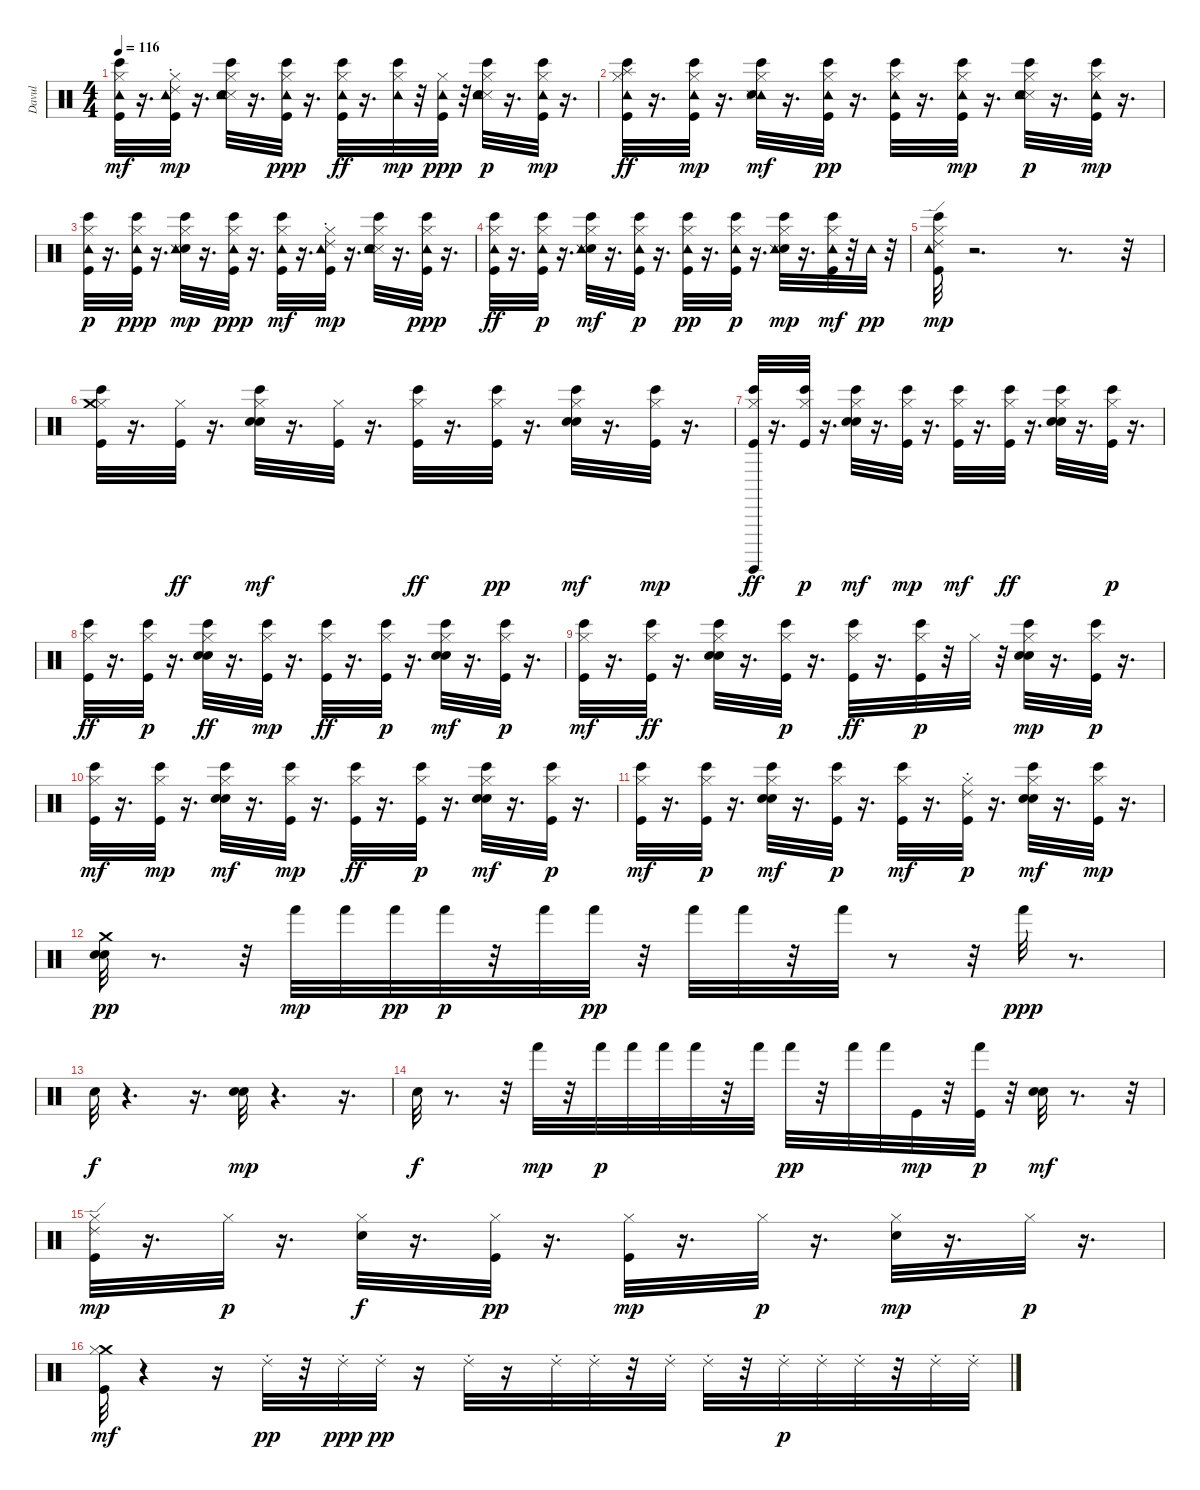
\track ("Davul" "Davul") {instrument percussion}
\staff {score}
\articulation defaults
\ts (4 4)
\tempo 116
\clef neutral
\ks c
("Tambourine (hit)" "Bongo High (hit)" "Kick (hit)" "Hi-Hat (closed)").32{dy mf} r.16{d} ("Kick (hit)" "Hi-Hat (closed)" "Tambourine (hit)" "Ride (choke) 2").32{dy mp} r.16{d} ("Snare (side stick) 3" "Bongo High (hit)" "Tambourine (hit)" "Snare (hit) 2" "Hi-Hat (closed)").32 r.16{d} ("Hi-Hat (closed)" "Bongo High (hit)" "Tambourine (hit)" "Kick (hit)").32{dy ppp} r.16{d} ("Tambourine (hit)" "Hi-Hat (closed)" "Bongo High (hit)" "Kick (hit)").32{dy ff} r.16{d} ("Tambourine (hit)" "Bongo High (hit)" "Hi-Hat (closed)").32{dy mp} r.32 ("Kick (hit)" "Hi-Hat (closed)" "Tambourine (hit)").32{dy ppp} r.32 ("Snare (side stick) 3" "Bongo High (hit)" "Hi-Hat (closed)" "Snare (hit) 2" "Tambourine (hit)").32{dy p} r.16{d} ("Bongo High (hit)" "Tambourine (hit)" "Kick (hit)" "Hi-Hat (closed)").32{dy mp} r.16{d} |
("Tambourine (hit)" "Splash (hit)" "Hi-Hat (closed)" "Kick (hit)" "Bongo High (hit)").32{dy ff} r.16{d} ("Hi-Hat (closed)" "Kick (hit)" "Tambourine (hit)" "Bongo High (hit)").32{dy mp} r.16{d} ("Tambourine (hit)" "Bongo High (hit)" "Hi-Hat (closed)" "Snare (hit) 2" "Snare (side stick) 3").32{dy mf} r.16{d} ("Kick (hit)" "Bongo High (hit)" "Hi-Hat (closed)" "Tambourine (hit)").32{dy pp} r.16{d} ("Kick (hit)" "Hi-Hat (closed)" "Bongo High (hit)" "Tambourine (hit)").32 r.16{d} ("Kick (hit)" "Hi-Hat (closed)" "Tambourine (hit)" "Bongo High (hit)").32{dy mp} r.16{d} ("Snare (side stick) 3" "Bongo High (hit)" "Snare (hit) 2" "Hi-Hat (closed)" "Tambourine (hit)").32{dy p} r.16{d} ("Tambourine (hit)" "Bongo High (hit)" "Kick (hit)" "Hi-Hat (closed)").32{dy mp} r.16{d} |
("Kick (hit)" "Hi-Hat (closed)" "Bongo High (hit)" "Tambourine (hit)").32{dy p} r.16{d} ("Kick (hit)" "Hi-Hat (closed)" "Bongo High (hit)" "Tambourine (hit)").32{dy ppp} r.16{d} ("Snare (hit) 2" "Snare (side stick) 3" "Hi-Hat (closed)" "Tambourine (hit)" "Bongo High (hit)").32{dy mp} r.16{d} ("Kick (hit)" "Hi-Hat (closed)" "Bongo High (hit)" "Tambourine (hit)").32{dy ppp} r.16{d} ("Bongo High (hit)" "Kick (hit)" "Tambourine (hit)" "Hi-Hat (closed)").32{dy mf} r.16{d} ("Tambourine (hit)" "Ride (choke) 2" "Kick (hit)" "Hi-Hat (closed)").32{dy mp} r.16{d} ("Hi-Hat (closed)" "Snare (side stick) 3" "Snare (hit) 2" "Bongo High (hit)" "Tambourine (hit)").32 r.16{d} ("Kick (hit)" "Hi-Hat (closed)" "Bongo High (hit)" "Tambourine (hit)").32{dy ppp} r.16{d} |
("Tambourine (hit)" "Bongo High (hit)" "Hi-Hat (closed)" "Kick (hit)").32{dy ff} r.16{d} ("Kick (hit)" "Hi-Hat (closed)" "Tambourine (hit)" "Bongo High (hit)").32{dy p} r.16{d} ("Snare (hit) 2" "Tambourine (hit)" "Snare (side stick) 3" "Bongo High (hit)" "Hi-Hat (closed)").32{dy mf} r.16{d} ("Hi-Hat (closed)" "Kick (hit)" "Tambourine (hit)" "Bongo High (hit)").32{dy p} r.16{d} ("Kick (hit)" "Hi-Hat (closed)" "Bongo High (hit)" "Tambourine (hit)").32{dy pp} r.16{d} ("Tambourine (hit)" "Kick (hit)" "Hi-Hat (closed)" "Bongo High (hit)").32{dy p} r.16{d} ("Snare (hit) 2" "Snare (side stick) 3" "Hi-Hat (closed)" "Bongo High (hit)" "Tambourine (hit)").32{dy mp} r.16{d} ("Tambourine (hit)" "Bongo High (hit)" "Hi-Hat (closed)" "Kick (hit)").32{dy mf} r.32 "Tambourine (hit)".32{dy pp} r.32 |
("Kick (hit)" "Bongo High (hit)" "Ride (edge) 2" "Tambourine (hit)" "Hi-Hat (closed)").32{dy mp} r.2{d} r.8{d} r.32 |
("Kick (hit)" "Hi-Hat (closed)" "Bongo High (hit)" "Crash medium (hit)").32 r.16{d} ("Hi-Hat (closed)" "Kick (hit)").32{dy ff} r.16{d} ("Snare (hit) 2" "Hi-Hat (closed)" "Electric Snare (hit)" "Bongo High (hit)").32{dy mf} r.16{d} ("Hi-Hat (closed)" "Kick (hit)").32 r.16{d} ("Bongo High (hit)" "Hi-Hat (closed)" "Kick (hit)").32{dy ff} r.16{d} ("Kick (hit)" "Hi-Hat (closed)" "Bongo High (hit)").32{dy pp} r.16{d} ("Bongo High (hit)" "Hi-Hat (closed)" "Electric Snare (hit)" "Snare (hit) 2").32{dy mf} r.16{d} ("Bongo High (hit)" "Hi-Hat (closed)" "Kick (hit)").32{dy mp} r.16{d} |
("Kick (hit)" "Surdo (hit)" "Hi-Hat (closed)" "Bongo High (hit)").32{dy ff} r.16{d} ("Hi-Hat (closed)" "Kick (hit)" "Bongo High (hit)").32{dy p} r.16{d} ("Electric Snare (hit)" "Bongo High (hit)" "Snare (hit) 2" "Hi-Hat (closed)").32{dy mf} r.16{d} ("Bongo High (hit)" "Hi-Hat (closed)" "Kick (hit)").32{dy mp} r.16{d} ("Kick (hit)" "Hi-Hat (closed)" "Bongo High (hit)").32{dy mf} r.16{d} ("Bongo High (hit)" "Hi-Hat (closed)" "Kick (hit)").32{dy ff} r.16{d} ("Electric Snare (hit)" "Snare (hit) 2" "Hi-Hat (closed)" "Bongo High (hit)").32 r.16{d} ("Kick (hit)" "Hi-Hat (closed)" "Bongo High (hit)").32{dy p} r.16{d} |
("Kick (hit)" "Hi-Hat (closed)" "Bongo High (hit)").32{dy ff} r.16{d} ("Kick (hit)" "Bongo High (hit)" "Hi-Hat (closed)").32{dy p} r.16{d} ("Electric Snare (hit)" "Snare (hit) 2" "Hi-Hat (closed)" "Bongo High (hit)").32{dy ff} r.16{d} ("Bongo High (hit)" "Hi-Hat (closed)" "Kick (hit)").32{dy mp} r.16{d} ("Kick (hit)" "Hi-Hat (closed)" "Bongo High (hit)").32{dy ff} r.16{d} ("Kick (hit)" "Hi-Hat (closed)" "Bongo High (hit)").32{dy p} r.16{d} ("Bongo High (hit)" "Electric Snare (hit)" "Snare (hit) 2" "Hi-Hat (closed)").32{dy mf} r.16{d} ("Hi-Hat (closed)" "Kick (hit)" "Bongo High (hit)").32{dy p} r.16{d} |
("Kick (hit)" "Hi-Hat (closed)" "Bongo High (hit)").32{dy mf} r.16{d} ("Bongo High (hit)" "Hi-Hat (closed)" "Kick (hit)").32{dy ff} r.16{d} ("Snare (hit) 2" "Electric Snare (hit)" "Hi-Hat (closed)" "Bongo High (hit)").32 r.16{d} ("Hi-Hat (closed)" "Kick (hit)" "Bongo High (hit)").32{dy p} r.16{d} ("Kick (hit)" "Hi-Hat (closed)" "Bongo High (hit)").32{dy ff} r.16{d} ("Kick (hit)" "Hi-Hat (closed)" "Bongo High (hit)").32{dy p} r.32 "Hi-Hat (closed)".32 r.32 ("Snare (hit) 2" "Electric Snare (hit)" "Bongo High (hit)" "Hi-Hat (closed)").32{dy mp} r.16{d} ("Kick (hit)" "Hi-Hat (closed)" "Bongo High (hit)").32{dy p} r.16{d} |
("Kick (hit)" "Hi-Hat (closed)" "Bongo High (hit)").32{dy mf} r.16{d} ("Bongo High (hit)" "Hi-Hat (closed)" "Kick (hit)").32{dy mp} r.16{d} ("Bongo High (hit)" "Snare (hit) 2" "Electric Snare (hit)" "Hi-Hat (closed)").32{dy mf} r.16{d} ("Kick (hit)" "Bongo High (hit)" "Hi-Hat (closed)").32{dy mp} r.16{d} ("Bongo High (hit)" "Hi-Hat (closed)" "Kick (hit)").32{dy ff} r.16{d} ("Kick (hit)" "Hi-Hat (closed)" "Bongo High (hit)").32{dy p} r.16{d} ("Electric Snare (hit)" "Snare (hit) 2" "Hi-Hat (closed)" "Bongo High (hit)").32{dy mf} r.16{d} ("Hi-Hat (closed)" "Kick (hit)" "Bongo High (hit)").32{dy p} r.16{d} |
("Kick (hit)" "Hi-Hat (closed)" "Bongo High (hit)").32{dy mf} r.16{d} ("Kick (hit)" "Hi-Hat (closed)" "Bongo High (hit)").32{dy p} r.16{d} ("Snare (hit) 2" "Bongo High (hit)" "Hi-Hat (closed)" "Electric Snare (hit)").32{dy mf} r.16{d} ("Kick (hit)" "Hi-Hat (closed)" "Bongo High (hit)").32{dy p} r.16{d} ("Bongo High (hit)" "Hi-Hat (closed)" "Kick (hit)").32{dy mf} r.16{d} ("Kick (hit)" "Hi-Hat (closed)" "Ride (choke) 2").32{dy p} r.16{d} ("Electric Snare (hit)" "Snare (hit) 2" "Hi-Hat (closed)" "Bongo High (hit)").32{dy mf} r.16{d} ("Bongo High (hit)" "Hi-Hat (closed)" "Kick (hit)").32{dy mp} r.16{d} |
("Electric Snare (hit)" "Snare (hit) 2" "Crash medium (hit)").32{dy pp} r.8{d} r.32 "Hand (hit)".32{dy mp} "Hand (hit)".32 "Hand (hit)".32{dy pp} "Hand (hit)".32{dy p} r.32 "Hand (hit)".32 "Hand (hit)".32{dy pp} r.32 "Hand (hit)".32 "Hand (hit)".32 r.32 "Hand (hit)".32 r.8 r.32 "Hand (hit)".32{dy ppp} r.8{d} |
"Electric Snare (hit)".32{dy f} r.4{d} r.16{d} ("Electric Snare (hit)" "Snare (hit) 2").32{dy mp} r.4{d} r.16{d} |
"Electric Snare (hit)".32{dy f} r.8{d} r.32 "Hand (hit)".32{dy mp} r.32 "Hand (hit)".32{dy p} "Hand (hit)".32 "Hand (hit)".32 "Hand (hit)".32 r.32 "Hand (hit)".32 "Hand (hit)".32{dy pp} r.32 "Hand (hit)".32 "Hand (hit)".32 "Kick (hit)".32{dy mp} r.32 ("Hand (hit)" "Kick (hit)").32{dy p} r.32 ("Electric Snare (hit)" "Snare (hit) 2").32{dy mf} r.8{d} r.32 |
("Kick (hit)" "Hi-Hat (closed)" "Ride (edge) 2").32{dy mp} r.16{d} "Hi-Hat (closed)".32{dy p} r.16{d} ("Hi-Hat (closed)" "Electric Snare (hit)").32{dy f} r.16{d} ("Kick (hit)" "Hi-Hat (closed)").32{dy pp} r.16{d} ("Kick (hit)" "Hi-Hat (closed)").32{dy mp} r.16{d} "Hi-Hat (closed)".32{dy p} r.16{d} ("Hi-Hat (closed)" "Electric Snare (hit)").32{dy mp} r.16{d} "Hi-Hat (closed)".32{dy p} r.16{d} |
("Crash medium (hit)" "Hi-Hat (closed)" "Kick (hit)").32{dy mf} r.4 r.16 "Ride (choke) 2".32{dy pp} r.32 "Ride (choke) 2".32{dy ppp} "Ride (choke) 2".32{dy pp} r.16 "Ride (choke) 2".32 r.16 "Ride (choke) 2".32 "Ride (choke) 2".32 r.32 "Ride (choke) 2".32 "Ride (choke) 2".32 r.32 "Ride (choke) 2".32{dy p} "Ride (choke) 2".32 "Ride (choke) 2".32 r.32 "Ride (choke) 2".32 "Ride (choke) 2".32
